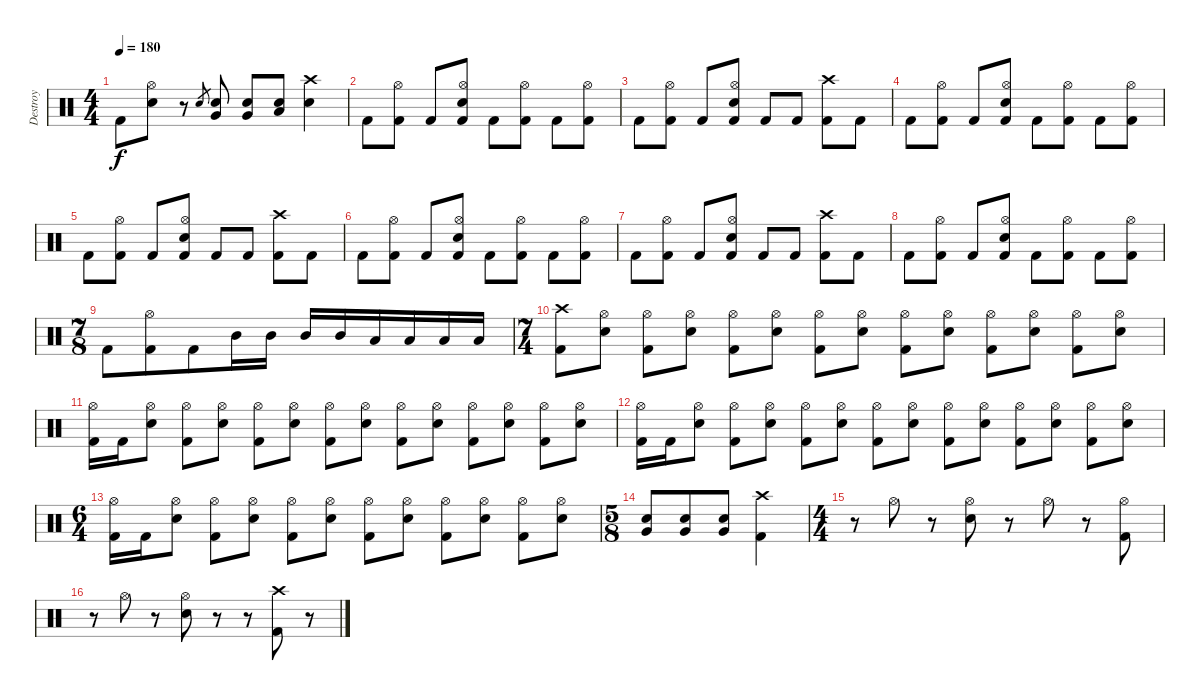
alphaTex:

\track ("Destroy" "Destroy") {instrument percussion}
\staff {score}
\articulation defaults
\ts (4 4)
\tempo 180
\clef neutral
\ks c "Kick (hit) 2".8{dy f}
("Hi-Hat (open)" "Electric Snare (hit)").8 r.8 "Electric Snare (hit)".8{gr} ("Electric Snare (hit)" "Very Low Tom (hit)").8 ("Electric Snare (hit)" "Very Low Tom (hit)").8 ("Electric Snare (hit)" "Low Floor Tom (hit)").8 ("Crash high (hit)" "Electric Snare (hit)").4 |
"Kick (hit) 2".8 ("Hi-Hat (open)" "Kick (hit) 2").8 "Kick (hit) 2".8 ("Hi-Hat (open)" "Electric Snare (hit)" "Kick (hit) 2").8 "Kick (hit) 2".8 ("Hi-Hat (open)" "Kick (hit) 2").8 "Kick (hit) 2".8 ("Hi-Hat (open)" "Kick (hit) 2").8 |
"Kick (hit) 2".8 ("Hi-Hat (open)" "Kick (hit) 2").8 "Kick (hit) 2".8 ("Hi-Hat (open)" "Electric Snare (hit)" "Kick (hit) 2").8 "Kick (hit) 2".8 "Kick (hit) 2".8 ("Crash high (hit)" "Kick (hit) 2").8 "Kick (hit) 2".8 |
"Kick (hit) 2".8 ("Hi-Hat (open)" "Kick (hit) 2").8 "Kick (hit) 2".8 ("Hi-Hat (open)" "Electric Snare (hit)" "Kick (hit) 2").8 "Kick (hit) 2".8 ("Hi-Hat (open)" "Kick (hit) 2").8 "Kick (hit) 2".8 ("Hi-Hat (open)" "Kick (hit) 2").8 |
"Kick (hit) 2".8 ("Hi-Hat (open)" "Kick (hit) 2").8 "Kick (hit) 2".8 ("Hi-Hat (open)" "Electric Snare (hit)" "Kick (hit) 2").8 "Kick (hit) 2".8 "Kick (hit) 2".8 ("Crash high (hit)" "Kick (hit) 2").8 "Kick (hit) 2".8 |
"Kick (hit) 2".8 ("Hi-Hat (open)" "Kick (hit) 2").8 "Kick (hit) 2".8 ("Hi-Hat (open)" "Electric Snare (hit)" "Kick (hit) 2").8 "Kick (hit) 2".8 ("Hi-Hat (open)" "Kick (hit) 2").8 "Kick (hit) 2".8 ("Hi-Hat (open)" "Kick (hit) 2").8 |
"Kick (hit) 2".8 ("Hi-Hat (open)" "Kick (hit) 2").8 "Kick (hit) 2".8 ("Hi-Hat (open)" "Electric Snare (hit)" "Kick (hit) 2").8 "Kick (hit) 2".8 "Kick (hit) 2".8 ("Crash high (hit)" "Kick (hit) 2").8 "Kick (hit) 2".8 |
"Kick (hit) 2".8 ("Hi-Hat (open)" "Kick (hit) 2").8 "Kick (hit) 2".8 ("Hi-Hat (open)" "Electric Snare (hit)" "Kick (hit) 2").8 "Kick (hit) 2".8 ("Hi-Hat (open)" "Kick (hit) 2").8 "Kick (hit) 2".8 ("Hi-Hat (open)" "Kick (hit) 2").8 |
\ts (7 8)
"Kick (hit) 2".8 ("Hi-Hat (open)" "Kick (hit) 2").8 "Kick (hit) 2".8 "Mid Tom (hit)".16 "Mid Tom (hit)".16 "Mid Tom (hit)".16 "Mid Tom (hit)".16 "Low Tom (hit)".16 "Low Tom (hit)".16 "Low Tom (hit)".16 "Low Tom (hit)".16 |
\ts (7 4)
("Crash high (hit)" "Kick (hit) 2").8 ("Hi-Hat (open)" "Electric Snare (hit)").8 ("Hi-Hat (open)" "Kick (hit) 2").8 ("Hi-Hat (open)" "Electric Snare (hit)").8 ("Hi-Hat (open)" "Kick (hit) 2").8 ("Hi-Hat (open)" "Electric Snare (hit)").8 ("Hi-Hat (open)" "Kick (hit) 2").8 ("Hi-Hat (open)" "Electric Snare (hit)").8 ("Hi-Hat (open)" "Kick (hit) 2").8 ("Hi-Hat (open)" "Electric Snare (hit)").8 ("Hi-Hat (open)" "Kick (hit) 2").8 ("Hi-Hat (open)" "Electric Snare (hit)").8 ("Hi-Hat (open)" "Kick (hit) 2").8 ("Hi-Hat (open)" "Electric Snare (hit)").8 |
("Hi-Hat (open)" "Kick (hit) 2").16 "Kick (hit) 2".16 ("Hi-Hat (open)" "Electric Snare (hit)").8 ("Hi-Hat (open)" "Kick (hit) 2").8 ("Hi-Hat (open)" "Electric Snare (hit)").8 ("Hi-Hat (open)" "Kick (hit) 2").8 ("Hi-Hat (open)" "Electric Snare (hit)").8 ("Hi-Hat (open)" "Kick (hit) 2").8 ("Hi-Hat (open)" "Electric Snare (hit)").8 ("Hi-Hat (open)" "Kick (hit) 2").8 ("Hi-Hat (open)" "Electric Snare (hit)").8 ("Hi-Hat (open)" "Kick (hit) 2").8 ("Hi-Hat (open)" "Electric Snare (hit)").8 ("Hi-Hat (open)" "Kick (hit) 2").8 ("Hi-Hat (open)" "Electric Snare (hit)").8 |
("Hi-Hat (open)" "Kick (hit) 2").16 "Kick (hit) 2".16 ("Hi-Hat (open)" "Electric Snare (hit)").8 ("Hi-Hat (open)" "Kick (hit) 2").8 ("Hi-Hat (open)" "Electric Snare (hit)").8 ("Hi-Hat (open)" "Kick (hit) 2").8 ("Hi-Hat (open)" "Electric Snare (hit)").8 ("Hi-Hat (open)" "Kick (hit) 2").8 ("Hi-Hat (open)" "Electric Snare (hit)").8 ("Hi-Hat (open)" "Kick (hit) 2").8 ("Hi-Hat (open)" "Electric Snare (hit)").8 ("Hi-Hat (open)" "Kick (hit) 2").8 ("Hi-Hat (open)" "Electric Snare (hit)").8 ("Hi-Hat (open)" "Kick (hit) 2").8 ("Hi-Hat (open)" "Electric Snare (hit)").8 |
\ts (6 4)
("Hi-Hat (open)" "Kick (hit) 2").16 "Kick (hit) 2".16 ("Hi-Hat (open)" "Electric Snare (hit)").8 ("Hi-Hat (open)" "Kick (hit) 2").8 ("Hi-Hat (open)" "Electric Snare (hit)").8 ("Hi-Hat (open)" "Kick (hit) 2").8 ("Hi-Hat (open)" "Electric Snare (hit)").8 ("Hi-Hat (open)" "Kick (hit) 2").8 ("Hi-Hat (open)" "Electric Snare (hit)").8 ("Hi-Hat (open)" "Kick (hit) 2").8 ("Hi-Hat (open)" "Electric Snare (hit)").8 ("Hi-Hat (open)" "Kick (hit) 2").8 ("Hi-Hat (open)" "Electric Snare (hit)").8 |
\ts (5 8)
("Electric Snare (hit)" "Very Low Tom (hit)").8 ("Electric Snare (hit)" "Very Low Tom (hit)").8 ("Electric Snare (hit)" "Very Low Tom (hit)").8 ("Crash high (hit)" "Kick (hit) 2").4 |
\ts (4 4)
r.8 "Hi-Hat (open)".8 r.8 ("Hi-Hat (open)" "Electric Snare (hit)").8 r.8 "Hi-Hat (open)".8 r.8 ("Hi-Hat (open)" "Kick (hit) 2").8 |
r.8 "Hi-Hat (open)".8 r.8 ("Hi-Hat (open)" "Electric Snare (hit)").8 r.8 r.8 ("Crash high (hit)" "Kick (hit) 2").8 r.8
